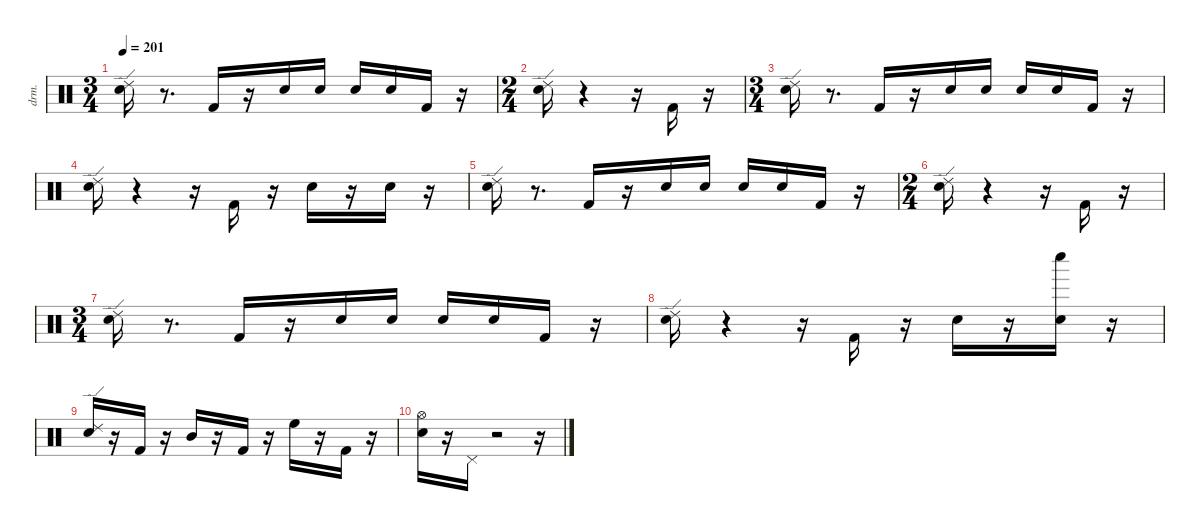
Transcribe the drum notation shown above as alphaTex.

\defaultSystemsLayout 4
\hideDynamics
\bracketExtendMode nobrackets
\otherSystemsTrackNameOrientation horizontal
\track ("Drums" "drm.") {instrument percussion}
\staff {score}
\articulation defaults
\ts (3 4)
\tempo 201
\clef neutral
\ks aminor
("Snare (hit) 2" "Ride (edge) 2").16{dy ff beam Down} r.8{d beam Down} "Kick (hit) 2".16{beam Up} r.16{beam Up} "Snare (hit) 2".16{dy ppp beam Up} "Snare (hit) 2".16{beam Up} "Snare (hit) 2".16{dy mf beam Up} "Snare (hit) 2".16{dy ppp beam Up} "Kick (hit) 2".16{dy ff beam Up} r.16{beam Up} |
\ts (2 4)
\beaming (8 2 2)
("Snare (hit) 2" "Ride (edge) 2").16{beam Down} r.4{beam Down} r.16{beam Down} "Kick (hit) 2".16{dy f beam Up} r.16{beam Up} |
\ts (3 4)
\beaming (8 2 2 2)
("Snare (hit) 2" "Ride (edge) 2").16{dy ff beam Down} r.8{d beam Down} "Kick (hit) 2".16{beam Up} r.16{beam Up} "Snare (hit) 2".16{dy ppp beam Up} "Snare (hit) 2".16{beam Up} "Snare (hit) 2".16{dy mf beam Up} "Snare (hit) 2".16{dy ppp beam Up} "Kick (hit) 2".16{dy ff beam Up} r.16{beam Up} |
("Snare (hit) 2" "Ride (edge) 2").16{beam Down} r.4{beam Down} r.16{beam Down} "Kick (hit) 2".16{beam Up} r.16{beam Up} "Snare (hit) 2".16{beam Down} r.16{beam Down} "Snare (hit) 2".16{dy pp beam Down} r.16{beam Down} |
("Snare (hit) 2" "Ride (edge) 2").16{dy ff beam Down} r.8{d beam Down} "Kick (hit) 2".16{beam Up} r.16{beam Up} "Snare (hit) 2".16{dy ppp beam Up} "Snare (hit) 2".16{beam Up} "Snare (hit) 2".16{dy mf beam Up} "Snare (hit) 2".16{dy ppp beam Up} "Kick (hit) 2".16{dy ff beam Up} r.16{beam Up} |
\ts (2 4)
\beaming (8 2 2)
("Snare (hit) 2" "Ride (edge) 2").16{beam Down} r.4{beam Down} r.16{beam Down} "Kick (hit) 2".16{dy f beam Up} r.16{beam Up} |
\ts (3 4)
\beaming (8 2 2 2)
("Snare (hit) 2" "Ride (edge) 2").16{dy ff beam Down} r.8{d beam Down} "Kick (hit) 2".16{beam Up} r.16{beam Up} "Snare (hit) 2".16{dy ppp beam Up} "Snare (hit) 2".16{beam Up} "Snare (hit) 2".16{dy mf beam Up} "Snare (hit) 2".16{dy ppp beam Up} "Kick (hit) 2".16{dy ff beam Up} r.16{beam Up} |
("Snare (hit) 2" "Ride (edge) 2").16{beam Down} r.4{beam Down} r.16{beam Down} "Kick (hit) 2".16{beam Up} r.16{beam Up} "Snare (hit) 2".16{beam Down} r.16{beam Down} ("Snare (hit) 2" "Whistle low (hit)").16{dy pp beam Down} r.16{beam Down} |
("Snare (hit) 2" "Ride (edge) 2").16{dy ff beam Up} r.16{beam Up} "Kick (hit) 2".16{beam Up} r.16{beam Up} "Mid Tom (hit)".16{beam Up} r.16{beam Up} "Kick (hit) 2".16{beam Up} r.16{beam Up} "High Floor Tom (hit)".16{beam Down} r.16{beam Down} "Kick (hit) 2".16{beam Down} r.16{beam Down} |
("Snare (hit) 2" "Hi-Hat (open)"{acc #}).16{beam Down} r.16{beam Down} "Pedal Hi-Hat (hit)"{acc #}.16{beam Down} r.2{beam Down} r.16{beam Down}
